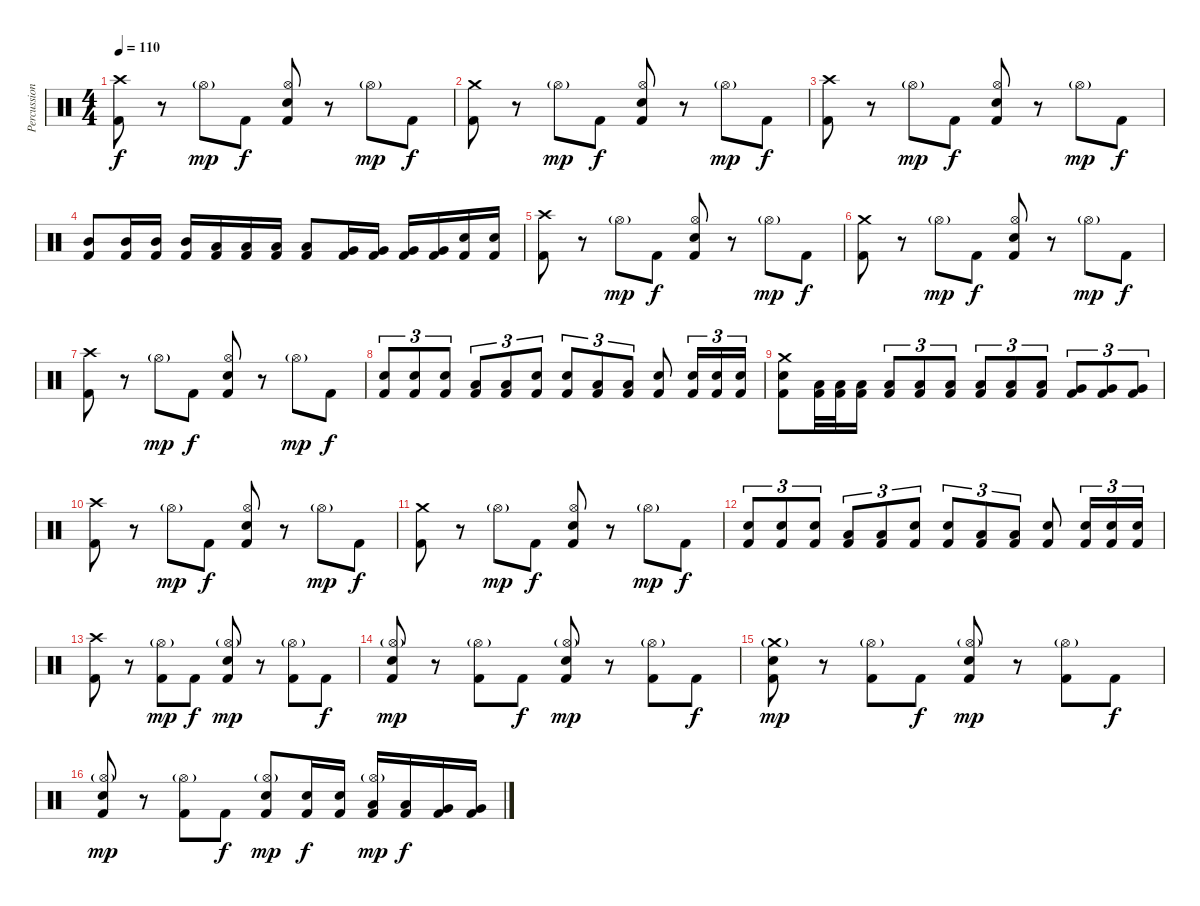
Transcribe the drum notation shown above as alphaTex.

\track ("Percussion" "Percussion") {instrument percussion}
\staff {score}
\articulation defaults
\ts (4 4)
\tempo 110
\clef neutral
\ks c
("Crash high (hit)" "Kick (hit) 2").8{dy f} r.8 "Hi-Hat (open)"{g}.8{dy mp} "Kick (hit) 2".8{dy f} ("Hi-Hat (open)" "Electric Snare (hit)" "Kick (hit) 2").8 r.8 "Hi-Hat (open)"{g}.8{dy mp} "Kick (hit) 2".8{dy f} |
("Crash medium (hit)" "Kick (hit) 2").8 r.8 "Hi-Hat (open)"{g}.8{dy mp} "Kick (hit) 2".8{dy f} ("Hi-Hat (open)" "Electric Snare (hit)" "Kick (hit) 2").8 r.8 "Hi-Hat (open)"{g}.8{dy mp} "Kick (hit) 2".8{dy f} |
("Crash high (hit)" "Kick (hit) 2").8 r.8 "Hi-Hat (open)"{g}.8{dy mp} "Kick (hit) 2".8{dy f} ("Hi-Hat (open)" "Electric Snare (hit)" "Kick (hit) 2").8 r.8 "Hi-Hat (open)"{g}.8{dy mp} "Kick (hit) 2".8{dy f} |
("Mid Tom (hit)" "Kick (hit) 2").8 ("Mid Tom (hit)" "Kick (hit) 2").16 ("Mid Tom (hit)" "Kick (hit) 2").16 ("Mid Tom (hit)" "Kick (hit) 2").16 ("Low Tom (hit)" "Kick (hit) 2").16 ("Low Tom (hit)" "Kick (hit) 2").16 ("Low Tom (hit)" "Kick (hit) 2").16 ("Low Tom (hit)" "Kick (hit) 2").8 ("Very Low Tom (hit)" "Kick (hit) 2").16 ("Very Low Tom (hit)" "Kick (hit) 2").16 ("Very Low Tom (hit)" "Kick (hit) 2").16 ("Very Low Tom (hit)" "Kick (hit) 2").16 ("Electric Snare (hit)" "Kick (hit) 2").16 ("Electric Snare (hit)" "Kick (hit) 2").16 |
("Crash high (hit)" "Kick (hit) 2").8 r.8 "Hi-Hat (open)"{g}.8{dy mp} "Kick (hit) 2".8{dy f} ("Hi-Hat (open)" "Electric Snare (hit)" "Kick (hit) 2").8 r.8 "Hi-Hat (open)"{g}.8{dy mp} "Kick (hit) 2".8{dy f} |
("Crash medium (hit)" "Kick (hit) 2").8 r.8 "Hi-Hat (open)"{g}.8{dy mp} "Kick (hit) 2".8{dy f} ("Hi-Hat (open)" "Electric Snare (hit)" "Kick (hit) 2").8 r.8 "Hi-Hat (open)"{g}.8{dy mp} "Kick (hit) 2".8{dy f} |
("Crash high (hit)" "Kick (hit) 2").8 r.8 "Hi-Hat (open)"{g}.8{dy mp} "Kick (hit) 2".8{dy f} ("Hi-Hat (open)" "Electric Snare (hit)" "Kick (hit) 2").8 r.8 "Hi-Hat (open)"{g}.8{dy mp} "Kick (hit) 2".8{dy f} |
("Electric Snare (hit)" "Kick (hit) 2").8{tu (3 2)} ("Electric Snare (hit)" "Kick (hit) 2").8{tu (3 2)} ("Electric Snare (hit)" "Kick (hit) 2").8{tu (3 2)} ("Low Tom (hit)" "Kick (hit) 2").8{tu (3 2)} ("Low Tom (hit)" "Kick (hit) 2").8{tu (3 2)} ("Electric Snare (hit)" "Kick (hit) 2").8{tu (3 2)} ("Electric Snare (hit)" "Kick (hit) 2").8{tu (3 2)} ("Low Tom (hit)" "Kick (hit) 2").8{tu (3 2)} ("Low Tom (hit)" "Kick (hit) 2").8{tu (3 2)} ("Electric Snare (hit)" "Kick (hit) 2").8 ("Electric Snare (hit)" "Kick (hit) 2").16{tu (3 2)} ("Electric Snare (hit)" "Kick (hit) 2").16{tu (3 2)} ("Electric Snare (hit)" "Kick (hit) 2").16{tu (3 2)} |
("Crash medium (hit)" "Electric Snare (hit)" "Kick (hit) 2").8 ("Low Tom (hit)" "Kick (hit) 2").32 ("Low Tom (hit)" "Kick (hit) 2").32 ("Low Tom (hit)" "Kick (hit) 2").16 ("Low Tom (hit)" "Kick (hit) 2").8{tu (3 2)} ("Low Tom (hit)" "Kick (hit) 2").8{tu (3 2)} ("Low Tom (hit)" "Kick (hit) 2").8{tu (3 2)} ("Low Tom (hit)" "Kick (hit) 2").8{tu (3 2)} ("Low Tom (hit)" "Kick (hit) 2").8{tu (3 2)} ("Low Tom (hit)" "Kick (hit) 2").8{tu (3 2)} ("Very Low Tom (hit)" "Kick (hit) 2").8{tu (3 2)} ("Very Low Tom (hit)" "Kick (hit) 2").8{tu (3 2)} ("Very Low Tom (hit)" "Kick (hit) 2").8{tu (3 2)} |
("Crash high (hit)" "Kick (hit) 2").8 r.8 "Hi-Hat (open)"{g}.8{dy mp} "Kick (hit) 2".8{dy f} ("Hi-Hat (open)" "Electric Snare (hit)" "Kick (hit) 2").8 r.8 "Hi-Hat (open)"{g}.8{dy mp} "Kick (hit) 2".8{dy f} |
("Crash medium (hit)" "Kick (hit) 2").8 r.8 "Hi-Hat (open)"{g}.8{dy mp} "Kick (hit) 2".8{dy f} ("Hi-Hat (open)" "Electric Snare (hit)" "Kick (hit) 2").8 r.8 "Hi-Hat (open)"{g}.8{dy mp} "Kick (hit) 2".8{dy f} |
("Electric Snare (hit)" "Kick (hit) 2").8{tu (3 2)} ("Electric Snare (hit)" "Kick (hit) 2").8{tu (3 2)} ("Electric Snare (hit)" "Kick (hit) 2").8{tu (3 2)} ("Low Tom (hit)" "Kick (hit) 2").8{tu (3 2)} ("Low Tom (hit)" "Kick (hit) 2").8{tu (3 2)} ("Electric Snare (hit)" "Kick (hit) 2").8{tu (3 2)} ("Electric Snare (hit)" "Kick (hit) 2").8{tu (3 2)} ("Low Tom (hit)" "Kick (hit) 2").8{tu (3 2)} ("Low Tom (hit)" "Kick (hit) 2").8{tu (3 2)} ("Electric Snare (hit)" "Kick (hit) 2").8 ("Electric Snare (hit)" "Kick (hit) 2").16{tu (3 2)} ("Electric Snare (hit)" "Kick (hit) 2").16{tu (3 2)} ("Electric Snare (hit)" "Kick (hit) 2").16{tu (3 2)} |
("Crash high (hit)" "Kick (hit) 2").8 r.8 ("Hi-Hat (open)"{g} "Kick (hit) 2").8{dy mp} "Kick (hit) 2".8{dy f} ("Hi-Hat (open)"{g} "Electric Snare (hit)" "Kick (hit) 2").8{dy mp} r.8 ("Hi-Hat (open)"{g} "Kick (hit) 2").8 "Kick (hit) 2".8{dy f} |
("Hi-Hat (open)"{g} "Electric Snare (hit)" "Kick (hit) 2").8{dy mp} r.8 ("Hi-Hat (open)"{g} "Kick (hit) 2").8 "Kick (hit) 2".8{dy f} ("Hi-Hat (open)"{g} "Electric Snare (hit)" "Kick (hit) 2").8{dy mp} r.8 ("Hi-Hat (open)"{g} "Kick (hit) 2").8 "Kick (hit) 2".8{dy f} |
("Crash medium (hit)"{g} "Electric Snare (hit)" "Kick (hit) 2").8{dy mp} r.8 ("Hi-Hat (open)"{g} "Kick (hit) 2").8 "Kick (hit) 2".8{dy f} ("Hi-Hat (open)"{g} "Electric Snare (hit)" "Kick (hit) 2").8{dy mp} r.8 ("Hi-Hat (open)"{g} "Kick (hit) 2").8 "Kick (hit) 2".8{dy f} |
("Hi-Hat (open)"{g} "Electric Snare (hit)" "Kick (hit) 2").8{dy mp} r.8 ("Hi-Hat (open)"{g} "Kick (hit) 2").8 "Kick (hit) 2".8{dy f} ("Hi-Hat (open)"{g} "Electric Snare (hit)" "Kick (hit) 2").8{dy mp} ("Electric Snare (hit)" "Kick (hit) 2").16{dy f} ("Electric Snare (hit)" "Kick (hit) 2").16 ("Hi-Hat (open)"{g} "Low Tom (hit)" "Kick (hit) 2").16{dy mp} ("Low Tom (hit)" "Kick (hit) 2").16{dy f} ("Very Low Tom (hit)" "Kick (hit) 2").16 ("Very Low Tom (hit)" "Kick (hit) 2").16
